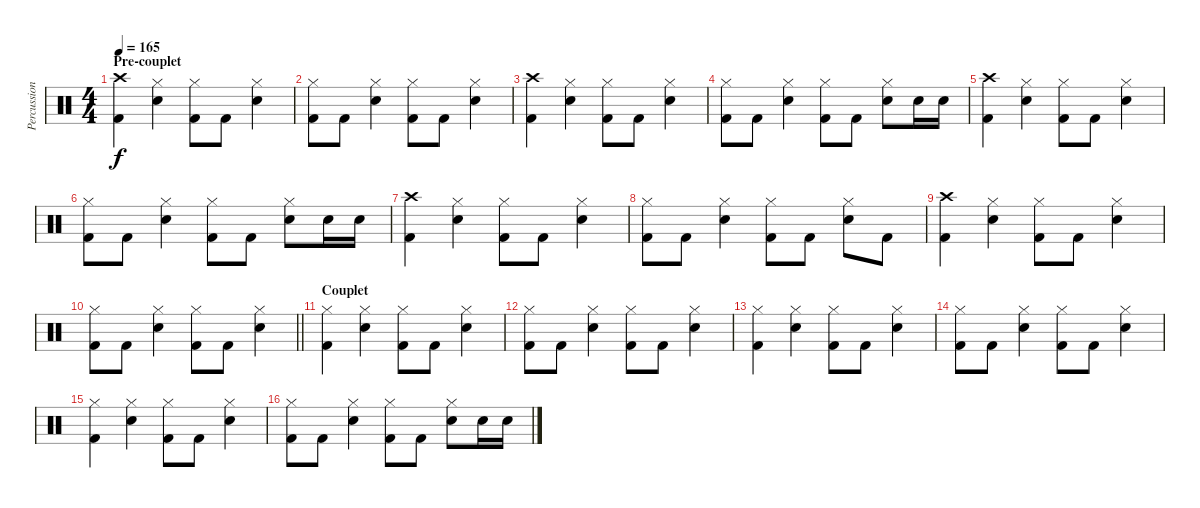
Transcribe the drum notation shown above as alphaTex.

\track ("Percussions" "Percussion") {instrument percussion}
\staff {score}
\articulation defaults
\ts (4 4)
\section ("" "Pre-couplet")
\tempo 165
\clef neutral
\ks c
("Crash high (hit)" "Kick (hit) 2").4{dy f} ("Hi-Hat (closed)" "Electric Snare (hit)").4 ("Hi-Hat (closed)" "Kick (hit) 2").8 "Kick (hit) 2".8 ("Hi-Hat (closed)" "Electric Snare (hit)").4 |
("Hi-Hat (closed)" "Kick (hit) 2").8 "Kick (hit) 2".8 ("Hi-Hat (closed)" "Electric Snare (hit)").4 ("Hi-Hat (closed)" "Kick (hit) 2").8 "Kick (hit) 2".8 ("Hi-Hat (closed)" "Electric Snare (hit)").4 |
("Crash high (hit)" "Kick (hit) 2").4 ("Hi-Hat (closed)" "Electric Snare (hit)").4 ("Hi-Hat (closed)" "Kick (hit) 2").8 "Kick (hit) 2".8 ("Hi-Hat (closed)" "Electric Snare (hit)").4 |
("Hi-Hat (closed)" "Kick (hit) 2").8 "Kick (hit) 2".8 ("Hi-Hat (closed)" "Electric Snare (hit)").4 ("Hi-Hat (closed)" "Kick (hit) 2").8 "Kick (hit) 2".8 ("Hi-Hat (closed)" "Electric Snare (hit)").8 "Electric Snare (hit)".16 "Electric Snare (hit)".16 |
("Crash high (hit)" "Kick (hit) 2").4 ("Hi-Hat (closed)" "Electric Snare (hit)").4 ("Hi-Hat (closed)" "Kick (hit) 2").8 "Kick (hit) 2".8 ("Hi-Hat (closed)" "Electric Snare (hit)").4 |
("Hi-Hat (closed)" "Kick (hit) 2").8 "Kick (hit) 2".8 ("Hi-Hat (closed)" "Electric Snare (hit)").4 ("Hi-Hat (closed)" "Kick (hit) 2").8 "Kick (hit) 2".8 ("Hi-Hat (closed)" "Electric Snare (hit)").8 "Electric Snare (hit)".16 "Electric Snare (hit)".16 |
("Crash high (hit)" "Kick (hit) 2").4 ("Hi-Hat (closed)" "Electric Snare (hit)").4 ("Hi-Hat (closed)" "Kick (hit) 2").8 "Kick (hit) 2".8 ("Hi-Hat (closed)" "Electric Snare (hit)").4 |
("Hi-Hat (closed)" "Kick (hit) 2").8 "Kick (hit) 2".8 ("Hi-Hat (closed)" "Electric Snare (hit)").4 ("Hi-Hat (closed)" "Kick (hit) 2").8 "Kick (hit) 2".8 ("Hi-Hat (closed)" "Electric Snare (hit)").8 "Kick (hit) 2".8 |
("Crash high (hit)" "Kick (hit) 2").4 ("Hi-Hat (closed)" "Electric Snare (hit)").4 ("Hi-Hat (closed)" "Kick (hit) 2").8 "Kick (hit) 2".8 ("Hi-Hat (closed)" "Electric Snare (hit)").4 |
\barLineRight lightlight
("Hi-Hat (closed)" "Kick (hit) 2").8 "Kick (hit) 2".8 ("Hi-Hat (closed)" "Electric Snare (hit)").4 ("Hi-Hat (closed)" "Kick (hit) 2").8 "Kick (hit) 2".8 ("Hi-Hat (closed)" "Electric Snare (hit)").4 |
\section ("" "Couplet")
("Hi-Hat (closed)" "Kick (hit) 2").4 ("Hi-Hat (closed)" "Electric Snare (hit)").4 ("Hi-Hat (closed)" "Kick (hit) 2").8 "Kick (hit) 2".8 ("Hi-Hat (closed)" "Electric Snare (hit)").4 |
("Hi-Hat (closed)" "Kick (hit) 2").8 "Kick (hit) 2".8 ("Hi-Hat (closed)" "Electric Snare (hit)").4 ("Hi-Hat (closed)" "Kick (hit) 2").8 "Kick (hit) 2".8 ("Hi-Hat (closed)" "Electric Snare (hit)").4 |
("Hi-Hat (closed)" "Kick (hit) 2").4 ("Hi-Hat (closed)" "Electric Snare (hit)").4 ("Hi-Hat (closed)" "Kick (hit) 2").8 "Kick (hit) 2".8 ("Hi-Hat (closed)" "Electric Snare (hit)").4 |
("Hi-Hat (closed)" "Kick (hit) 2").8 "Kick (hit) 2".8 ("Hi-Hat (closed)" "Electric Snare (hit)").4 ("Hi-Hat (closed)" "Kick (hit) 2").8 "Kick (hit) 2".8 ("Hi-Hat (closed)" "Electric Snare (hit)").4 |
("Hi-Hat (closed)" "Kick (hit) 2").4 ("Hi-Hat (closed)" "Electric Snare (hit)").4 ("Hi-Hat (closed)" "Kick (hit) 2").8 "Kick (hit) 2".8 ("Hi-Hat (closed)" "Electric Snare (hit)").4 |
("Hi-Hat (closed)" "Kick (hit) 2").8 "Kick (hit) 2".8 ("Hi-Hat (closed)" "Electric Snare (hit)").4 ("Hi-Hat (closed)" "Kick (hit) 2").8 "Kick (hit) 2".8 ("Hi-Hat (closed)" "Electric Snare (hit)").8 "Electric Snare (hit)".16 "Electric Snare (hit)".16
